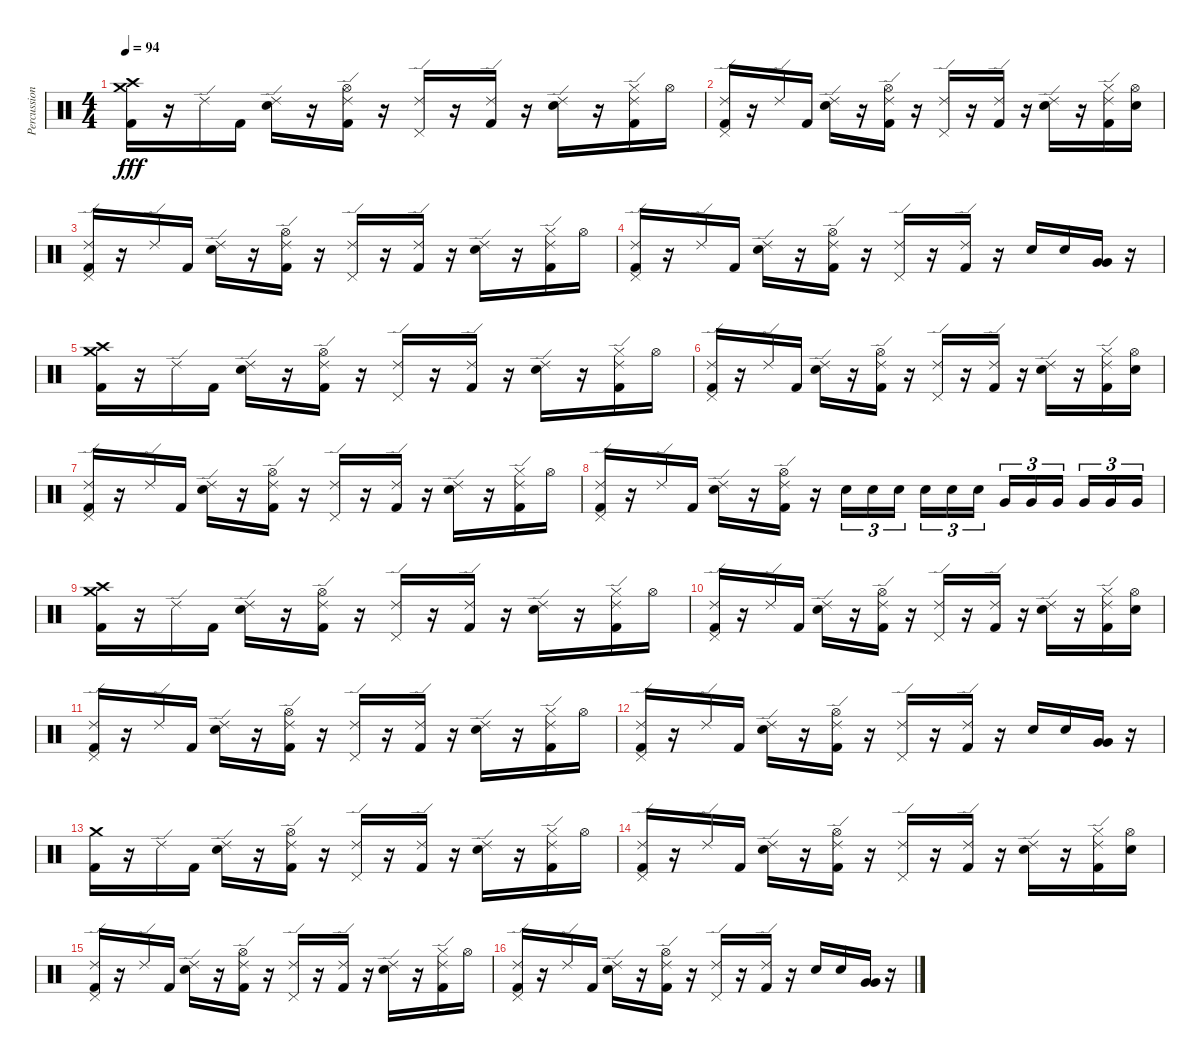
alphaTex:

\track ("Percussion" "Percussion") {instrument percussion}
\staff {score}
\articulation defaults
\ts (4 4)
\tempo 94
\clef neutral
\ks c
("Crash medium (hit)" "Crash high (hit)" "Kick (hit) 2").16{dy fff} r.16 "Ride (edge) 2".16 "Kick (hit) 2".16 ("Ride (edge) 2" "Electric Snare (hit)").16 r.16 ("Ride (edge) 2" "Hi-Hat (open)" "Kick (hit) 2").16 r.16 ("Ride (edge) 2" "Pedal Hi-Hat (hit)").16 r.16 ("Ride (edge) 2" "Kick (hit) 2").16 r.16 ("Ride (edge) 2" "Electric Snare (hit)").16 r.16 ("Ride (edge) 2" "Hi-Hat (closed)" "Kick (hit) 2").16 "Hi-Hat (open)".16 |
("Ride (edge) 2" "Pedal Hi-Hat (hit)" "Kick (hit) 2").16 r.16 "Ride (edge) 2".16 "Kick (hit) 2".16 ("Ride (edge) 2" "Electric Snare (hit)").16 r.16 ("Ride (edge) 2" "Hi-Hat (open)" "Kick (hit) 2").16 r.16 ("Ride (edge) 2" "Pedal Hi-Hat (hit)").16 r.16 ("Ride (edge) 2" "Kick (hit) 2").16 r.16 ("Ride (edge) 2" "Electric Snare (hit)").16 r.16 ("Ride (edge) 2" "Hi-Hat (closed)" "Kick (hit) 2").16 ("Hi-Hat (open)" "Electric Snare (hit)").16 |
("Ride (edge) 2" "Pedal Hi-Hat (hit)" "Kick (hit) 2").16 r.16 "Ride (edge) 2".16 "Kick (hit) 2".16 ("Ride (edge) 2" "Electric Snare (hit)").16 r.16 ("Ride (edge) 2" "Hi-Hat (open)" "Kick (hit) 2").16 r.16 ("Ride (edge) 2" "Pedal Hi-Hat (hit)").16 r.16 ("Ride (edge) 2" "Kick (hit) 2").16 r.16 ("Ride (edge) 2" "Electric Snare (hit)").16 r.16 ("Ride (edge) 2" "Hi-Hat (closed)" "Kick (hit) 2").16 "Hi-Hat (open)".16 |
("Ride (edge) 2" "Pedal Hi-Hat (hit)" "Kick (hit) 2").16 r.16 "Ride (edge) 2".16 "Kick (hit) 2".16 ("Ride (edge) 2" "Electric Snare (hit)").16 r.16 ("Ride (edge) 2" "Hi-Hat (open)" "Kick (hit) 2").16 r.16 ("Ride (edge) 2" "Pedal Hi-Hat (hit)").16 r.16 ("Ride (edge) 2" "Kick (hit) 2").16 r.16 "Electric Snare (hit)".16 "Electric Snare (hit)".16 ("Very Low Tom (hit)" "Very Low Tom (hit)").16 r.16 |
("Crash medium (hit)" "Crash high (hit)" "Kick (hit) 2").16 r.16 "Ride (edge) 2".16 "Kick (hit) 2".16 ("Ride (edge) 2" "Electric Snare (hit)").16 r.16 ("Ride (edge) 2" "Hi-Hat (open)" "Kick (hit) 2").16 r.16 ("Ride (edge) 2" "Pedal Hi-Hat (hit)").16 r.16 ("Ride (edge) 2" "Kick (hit) 2").16 r.16 ("Ride (edge) 2" "Electric Snare (hit)").16 r.16 ("Ride (edge) 2" "Hi-Hat (closed)" "Kick (hit) 2").16 "Hi-Hat (open)".16 |
("Ride (edge) 2" "Pedal Hi-Hat (hit)" "Kick (hit) 2").16 r.16 "Ride (edge) 2".16 "Kick (hit) 2".16 ("Ride (edge) 2" "Electric Snare (hit)").16 r.16 ("Ride (edge) 2" "Hi-Hat (open)" "Kick (hit) 2").16 r.16 ("Ride (edge) 2" "Pedal Hi-Hat (hit)").16 r.16 ("Ride (edge) 2" "Kick (hit) 2").16 r.16 ("Ride (edge) 2" "Electric Snare (hit)").16 r.16 ("Ride (edge) 2" "Hi-Hat (closed)" "Kick (hit) 2").16 ("Hi-Hat (open)" "Electric Snare (hit)").16 |
("Ride (edge) 2" "Pedal Hi-Hat (hit)" "Kick (hit) 2").16 r.16 "Ride (edge) 2".16 "Kick (hit) 2".16 ("Ride (edge) 2" "Electric Snare (hit)").16 r.16 ("Ride (edge) 2" "Hi-Hat (open)" "Kick (hit) 2").16 r.16 ("Ride (edge) 2" "Pedal Hi-Hat (hit)").16 r.16 ("Ride (edge) 2" "Kick (hit) 2").16 r.16 ("Ride (edge) 2" "Electric Snare (hit)").16 r.16 ("Ride (edge) 2" "Hi-Hat (closed)" "Kick (hit) 2").16 "Hi-Hat (open)".16 |
("Ride (edge) 2" "Pedal Hi-Hat (hit)" "Kick (hit) 2").16 r.16 "Ride (edge) 2".16 "Kick (hit) 2".16 ("Ride (edge) 2" "Electric Snare (hit)").16 r.16 ("Ride (edge) 2" "Hi-Hat (open)" "Kick (hit) 2").16 r.16 "Electric Snare (hit)".16{tu (3 2)} "Electric Snare (hit)".16{tu (3 2)} "Electric Snare (hit)".16{tu (3 2)} "Electric Snare (hit)".16{tu (3 2)} "Electric Snare (hit)".16{tu (3 2)} "Electric Snare (hit)".16{tu (3 2)} "Very Low Tom (hit)".16{tu (3 2)} "Very Low Tom (hit)".16{tu (3 2)} "Very Low Tom (hit)".16{tu (3 2)} "Very Low Tom (hit)".16{tu (3 2)} "Very Low Tom (hit)".16{tu (3 2)} "Very Low Tom (hit)".16{tu (3 2)} |
("Crash medium (hit)" "Crash high (hit)" "Kick (hit) 2").16 r.16 "Ride (edge) 2".16 "Kick (hit) 2".16 ("Ride (edge) 2" "Electric Snare (hit)").16 r.16 ("Ride (edge) 2" "Hi-Hat (open)" "Kick (hit) 2").16 r.16 ("Ride (edge) 2" "Pedal Hi-Hat (hit)").16 r.16 ("Ride (edge) 2" "Kick (hit) 2").16 r.16 ("Ride (edge) 2" "Electric Snare (hit)").16 r.16 ("Ride (edge) 2" "Hi-Hat (closed)" "Kick (hit) 2").16 "Hi-Hat (open)".16 |
("Ride (edge) 2" "Pedal Hi-Hat (hit)" "Kick (hit) 2").16 r.16 "Ride (edge) 2".16 "Kick (hit) 2".16 ("Ride (edge) 2" "Electric Snare (hit)").16 r.16 ("Ride (edge) 2" "Hi-Hat (open)" "Kick (hit) 2").16 r.16 ("Ride (edge) 2" "Pedal Hi-Hat (hit)").16 r.16 ("Ride (edge) 2" "Kick (hit) 2").16 r.16 ("Ride (edge) 2" "Electric Snare (hit)").16 r.16 ("Ride (edge) 2" "Hi-Hat (closed)" "Kick (hit) 2").16 ("Hi-Hat (open)" "Electric Snare (hit)").16 |
("Ride (edge) 2" "Pedal Hi-Hat (hit)" "Kick (hit) 2").16 r.16 "Ride (edge) 2".16 "Kick (hit) 2".16 ("Ride (edge) 2" "Electric Snare (hit)").16 r.16 ("Ride (edge) 2" "Hi-Hat (open)" "Kick (hit) 2").16 r.16 ("Ride (edge) 2" "Pedal Hi-Hat (hit)").16 r.16 ("Ride (edge) 2" "Kick (hit) 2").16 r.16 ("Ride (edge) 2" "Electric Snare (hit)").16 r.16 ("Ride (edge) 2" "Hi-Hat (closed)" "Kick (hit) 2").16 "Hi-Hat (open)".16 |
("Ride (edge) 2" "Pedal Hi-Hat (hit)" "Kick (hit) 2").16 r.16 "Ride (edge) 2".16 "Kick (hit) 2".16 ("Ride (edge) 2" "Electric Snare (hit)").16 r.16 ("Ride (edge) 2" "Hi-Hat (open)" "Kick (hit) 2").16 r.16 ("Ride (edge) 2" "Pedal Hi-Hat (hit)").16 r.16 ("Ride (edge) 2" "Kick (hit) 2").16 r.16 "Electric Snare (hit)".16 "Electric Snare (hit)".16 ("Very Low Tom (hit)" "Very Low Tom (hit)").16 r.16 |
("Crash medium (hit)" "Kick (hit) 2").16 r.16 "Ride (edge) 2".16 "Kick (hit) 2".16 ("Ride (edge) 2" "Electric Snare (hit)").16 r.16 ("Ride (edge) 2" "Hi-Hat (open)" "Kick (hit) 2").16 r.16 ("Ride (edge) 2" "Pedal Hi-Hat (hit)").16 r.16 ("Ride (edge) 2" "Kick (hit) 2").16 r.16 ("Ride (edge) 2" "Electric Snare (hit)").16 r.16 ("Ride (edge) 2" "Hi-Hat (closed)" "Kick (hit) 2").16 "Hi-Hat (open)".16 |
("Ride (edge) 2" "Pedal Hi-Hat (hit)" "Kick (hit) 2").16 r.16 "Ride (edge) 2".16 "Kick (hit) 2".16 ("Ride (edge) 2" "Electric Snare (hit)").16 r.16 ("Ride (edge) 2" "Hi-Hat (open)" "Kick (hit) 2").16 r.16 ("Ride (edge) 2" "Pedal Hi-Hat (hit)").16 r.16 ("Ride (edge) 2" "Kick (hit) 2").16 r.16 ("Ride (edge) 2" "Electric Snare (hit)").16 r.16 ("Ride (edge) 2" "Hi-Hat (closed)" "Kick (hit) 2").16 ("Hi-Hat (open)" "Electric Snare (hit)").16 |
("Ride (edge) 2" "Pedal Hi-Hat (hit)" "Kick (hit) 2").16 r.16 "Ride (edge) 2".16 "Kick (hit) 2".16 ("Ride (edge) 2" "Electric Snare (hit)").16 r.16 ("Ride (edge) 2" "Hi-Hat (open)" "Kick (hit) 2").16 r.16 ("Ride (edge) 2" "Pedal Hi-Hat (hit)").16 r.16 ("Ride (edge) 2" "Kick (hit) 2").16 r.16 ("Ride (edge) 2" "Electric Snare (hit)").16 r.16 ("Ride (edge) 2" "Hi-Hat (closed)" "Kick (hit) 2").16 "Hi-Hat (open)".16 |
("Ride (edge) 2" "Pedal Hi-Hat (hit)" "Kick (hit) 2").16 r.16 "Ride (edge) 2".16 "Kick (hit) 2".16 ("Ride (edge) 2" "Electric Snare (hit)").16 r.16 ("Ride (edge) 2" "Hi-Hat (open)" "Kick (hit) 2").16 r.16 ("Ride (edge) 2" "Pedal Hi-Hat (hit)").16 r.16 ("Ride (edge) 2" "Kick (hit) 2").16 r.16 "Electric Snare (hit)".16 "Electric Snare (hit)".16 ("Very Low Tom (hit)" "Very Low Tom (hit)").16 r.16
